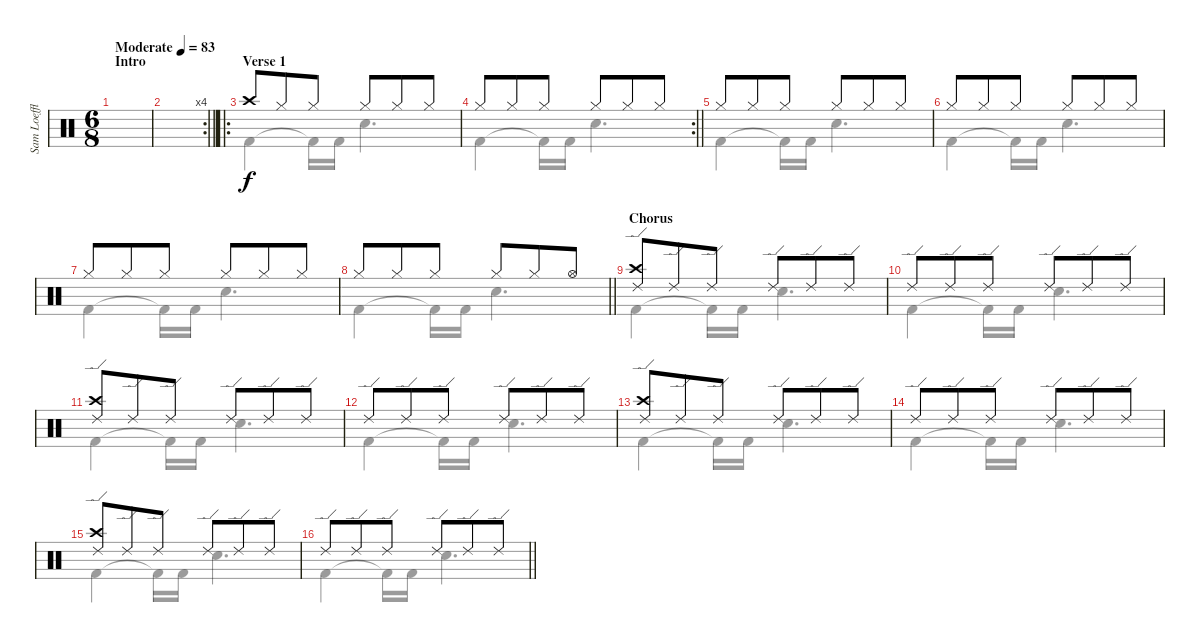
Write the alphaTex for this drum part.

\track ("Sam Loeffler" "Sam Loeffl") {instrument percussion}
\staff {score}
\articulation defaults
\voice
\ts (6 8)
\section ("" "Intro")
\tempo (83 "Moderate")
\clef neutral
\ks c
|
\rc 4
\barLineRight lightlight
|
\ro
\section ("" "Verse 1")
"Crash high (hit)".8 "Hi-Hat (closed)".8 "Hi-Hat (closed)".8 "Hi-Hat (closed)".8 "Hi-Hat (closed)".8 "Hi-Hat (closed)".8 |
\rc 2
\barLineRight lightlight "Hi-Hat (closed)".8 "Hi-Hat (closed)".8 "Hi-Hat (closed)".8 "Hi-Hat (closed)".8 "Hi-Hat (closed)".8 "Hi-Hat (closed)".8
|
"Hi-Hat (closed)".8 "Hi-Hat (closed)".8 "Hi-Hat (closed)".8 "Hi-Hat (closed)".8 "Hi-Hat (closed)".8 "Hi-Hat (closed)".8 |
"Hi-Hat (closed)".8 "Hi-Hat (closed)".8 "Hi-Hat (closed)".8 "Hi-Hat (closed)".8 "Hi-Hat (closed)".8 "Hi-Hat (closed)".8 |
"Hi-Hat (closed)".8 "Hi-Hat (closed)".8 "Hi-Hat (closed)".8 "Hi-Hat (closed)".8 "Hi-Hat (closed)".8 "Hi-Hat (closed)".8 |
\barLineRight lightlight "Hi-Hat (closed)".8 "Hi-Hat (closed)".8 "Hi-Hat (closed)".8 "Hi-Hat (closed)".8 "Hi-Hat (closed)".8 "Hi-Hat (open)".8
|
\section ("" "Chorus")
("Crash high (hit)" "Ride (edge) 2").8 "Ride (edge) 2".8 "Ride (edge) 2".8 "Ride (edge) 2".8 "Ride (edge) 2".8 "Ride (edge) 2".8 |
"Ride (edge) 2".8 "Ride (edge) 2".8 "Ride (edge) 2".8 "Ride (edge) 2".8 "Ride (edge) 2".8 "Ride (edge) 2".8 |
("Crash high (hit)" "Ride (edge) 2").8 "Ride (edge) 2".8 "Ride (edge) 2".8 "Ride (edge) 2".8 "Ride (edge) 2".8 "Ride (edge) 2".8 |
"Ride (edge) 2".8 "Ride (edge) 2".8 "Ride (edge) 2".8 "Ride (edge) 2".8 "Ride (edge) 2".8 "Ride (edge) 2".8 |
("Crash high (hit)" "Ride (edge) 2").8 "Ride (edge) 2".8 "Ride (edge) 2".8 "Ride (edge) 2".8 "Ride (edge) 2".8 "Ride (edge) 2".8 |
"Ride (edge) 2".8 "Ride (edge) 2".8 "Ride (edge) 2".8 "Ride (edge) 2".8 "Ride (edge) 2".8 "Ride (edge) 2".8 |
("Crash high (hit)" "Ride (edge) 2").8 "Ride (edge) 2".8 "Ride (edge) 2".8 "Ride (edge) 2".8 "Ride (edge) 2".8 "Ride (edge) 2".8 |
\barLineRight lightlight "Ride (edge) 2".8 "Ride (edge) 2".8 "Ride (edge) 2".8 "Ride (edge) 2".8 "Ride (edge) 2".8 "Ride (edge) 2".8
\voice
\clef neutral
\ottava regular
\simile none
\ks c
|
\barLineRight lightlight
|
"Kick (hit) 2".4 "Kick (hit) 2"{t}.16 "Kick (hit) 2".16 "Electric Snare (hit)".4{d} |
\barLineRight lightlight "Kick (hit) 2".4 "Kick (hit) 2"{t}.16 "Kick (hit) 2".16 "Electric Snare (hit)".4{d}
|
"Kick (hit) 2".4 "Kick (hit) 2"{t}.16 "Kick (hit) 2".16 "Electric Snare (hit)".4{d} |
"Kick (hit) 2".4 "Kick (hit) 2"{t}.16 "Kick (hit) 2".16 "Electric Snare (hit)".4{d} |
"Kick (hit) 2".4 "Kick (hit) 2"{t}.16 "Kick (hit) 2".16 "Electric Snare (hit)".4{d} |
\barLineRight lightlight "Kick (hit) 2".4 "Kick (hit) 2"{t}.16 "Kick (hit) 2".16 "Electric Snare (hit)".4{d}
|
"Kick (hit) 2".4 "Kick (hit) 2"{t}.16 "Kick (hit) 2".16 "Electric Snare (hit)".4{d} |
"Kick (hit) 2".4 "Kick (hit) 2"{t}.16 "Kick (hit) 2".16 "Electric Snare (hit)".4{d} |
"Kick (hit) 2".4 "Kick (hit) 2"{t}.16 "Kick (hit) 2".16 "Electric Snare (hit)".4{d} |
"Kick (hit) 2".4 "Kick (hit) 2"{t}.16 "Kick (hit) 2".16 "Electric Snare (hit)".4{d} |
"Kick (hit) 2".4 "Kick (hit) 2"{t}.16 "Kick (hit) 2".16 "Electric Snare (hit)".4{d} |
"Kick (hit) 2".4 "Kick (hit) 2"{t}.16 "Kick (hit) 2".16 "Electric Snare (hit)".4{d} |
"Kick (hit) 2".4 "Kick (hit) 2"{t}.16 "Kick (hit) 2".16 "Electric Snare (hit)".4{d} |
\barLineRight lightlight "Kick (hit) 2".4 "Kick (hit) 2"{t}.16 "Kick (hit) 2".16 "Electric Snare (hit)".4{d}
